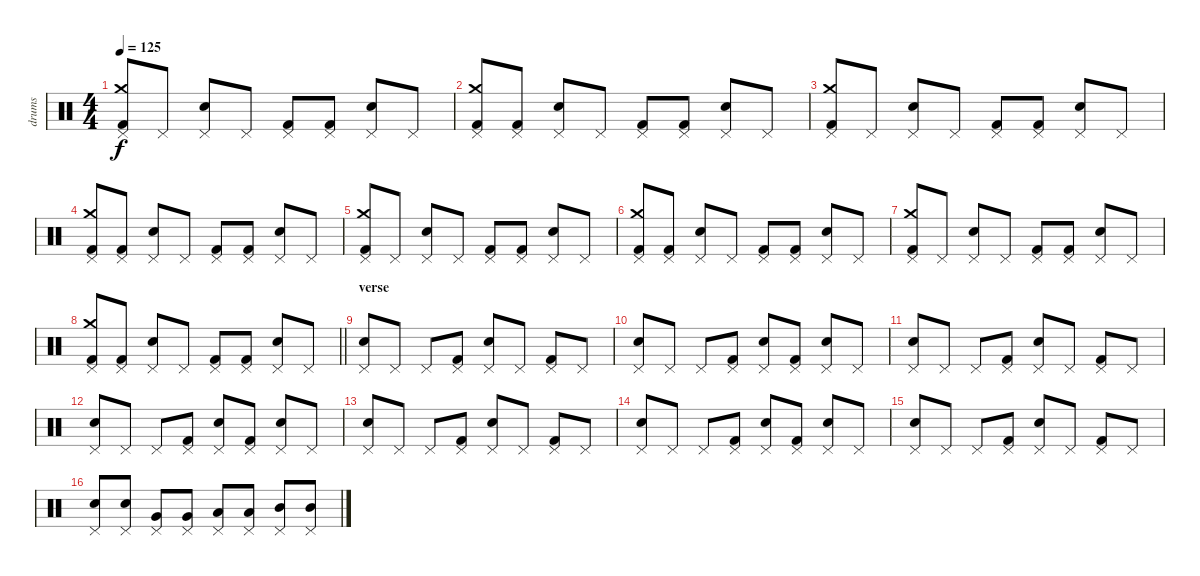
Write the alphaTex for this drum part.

\track ("drums" "drums") {instrument percussion}
\staff {score}
\articulation defaults
\ts (4 4)
\tempo 125
\clef neutral
\ks c
("Pedal Hi-Hat (hit)" "Crash medium (hit)" "Kick (hit) 2").8{dy f} "Pedal Hi-Hat (hit)".8 ("Pedal Hi-Hat (hit)" "Snare (hit) 2").8 "Pedal Hi-Hat (hit)".8 ("Pedal Hi-Hat (hit)" "Kick (hit) 2").8 ("Pedal Hi-Hat (hit)" "Kick (hit) 2").8 ("Pedal Hi-Hat (hit)" "Snare (hit) 2").8 "Pedal Hi-Hat (hit)".8 |
("Pedal Hi-Hat (hit)" "Crash medium (hit)" "Kick (hit) 2").8 ("Pedal Hi-Hat (hit)" "Kick (hit) 2").8 ("Pedal Hi-Hat (hit)" "Snare (hit) 2").8 "Pedal Hi-Hat (hit)".8 ("Pedal Hi-Hat (hit)" "Kick (hit) 2").8 ("Pedal Hi-Hat (hit)" "Kick (hit) 2").8 ("Pedal Hi-Hat (hit)" "Snare (hit) 2").8 "Pedal Hi-Hat (hit)".8 |
("Pedal Hi-Hat (hit)" "Crash medium (hit)" "Kick (hit) 2").8 "Pedal Hi-Hat (hit)".8 ("Pedal Hi-Hat (hit)" "Snare (hit) 2").8 "Pedal Hi-Hat (hit)".8 ("Pedal Hi-Hat (hit)" "Kick (hit) 2").8 ("Pedal Hi-Hat (hit)" "Kick (hit) 2").8 ("Pedal Hi-Hat (hit)" "Snare (hit) 2").8 "Pedal Hi-Hat (hit)".8 |
("Pedal Hi-Hat (hit)" "Crash medium (hit)" "Kick (hit) 2").8 ("Pedal Hi-Hat (hit)" "Kick (hit) 2").8 ("Pedal Hi-Hat (hit)" "Snare (hit) 2").8 "Pedal Hi-Hat (hit)".8 ("Pedal Hi-Hat (hit)" "Kick (hit) 2").8 ("Pedal Hi-Hat (hit)" "Kick (hit) 2").8 ("Pedal Hi-Hat (hit)" "Snare (hit) 2").8 "Pedal Hi-Hat (hit)".8 |
("Pedal Hi-Hat (hit)" "Crash medium (hit)" "Kick (hit) 2").8 "Pedal Hi-Hat (hit)".8 ("Pedal Hi-Hat (hit)" "Snare (hit) 2").8 "Pedal Hi-Hat (hit)".8 ("Pedal Hi-Hat (hit)" "Kick (hit) 2").8 ("Pedal Hi-Hat (hit)" "Kick (hit) 2").8 ("Pedal Hi-Hat (hit)" "Snare (hit) 2").8 "Pedal Hi-Hat (hit)".8 |
("Pedal Hi-Hat (hit)" "Crash medium (hit)" "Kick (hit) 2").8 ("Pedal Hi-Hat (hit)" "Kick (hit) 2").8 ("Pedal Hi-Hat (hit)" "Snare (hit) 2").8 "Pedal Hi-Hat (hit)".8 ("Pedal Hi-Hat (hit)" "Kick (hit) 2").8 ("Pedal Hi-Hat (hit)" "Kick (hit) 2").8 ("Pedal Hi-Hat (hit)" "Snare (hit) 2").8 "Pedal Hi-Hat (hit)".8 |
("Pedal Hi-Hat (hit)" "Crash medium (hit)" "Kick (hit) 2").8 "Pedal Hi-Hat (hit)".8 ("Pedal Hi-Hat (hit)" "Snare (hit) 2").8 "Pedal Hi-Hat (hit)".8 ("Pedal Hi-Hat (hit)" "Kick (hit) 2").8 ("Pedal Hi-Hat (hit)" "Kick (hit) 2").8 ("Pedal Hi-Hat (hit)" "Snare (hit) 2").8 "Pedal Hi-Hat (hit)".8 |
\barLineRight lightlight
("Pedal Hi-Hat (hit)" "Crash medium (hit)" "Kick (hit) 2").8 ("Pedal Hi-Hat (hit)" "Kick (hit) 2").8 ("Pedal Hi-Hat (hit)" "Snare (hit) 2").8 "Pedal Hi-Hat (hit)".8 ("Pedal Hi-Hat (hit)" "Kick (hit) 2").8 ("Pedal Hi-Hat (hit)" "Kick (hit) 2").8 ("Pedal Hi-Hat (hit)" "Snare (hit) 2").8 "Pedal Hi-Hat (hit)".8 |
\section ("" "verse")
("Pedal Hi-Hat (hit)" "Snare (hit) 2").8 "Pedal Hi-Hat (hit)".8 "Pedal Hi-Hat (hit)".8 ("Pedal Hi-Hat (hit)" "Kick (hit) 2").8 ("Pedal Hi-Hat (hit)" "Snare (hit) 2").8 "Pedal Hi-Hat (hit)".8 ("Pedal Hi-Hat (hit)" "Kick (hit) 2").8 "Pedal Hi-Hat (hit)".8 |
("Pedal Hi-Hat (hit)" "Snare (hit) 2").8 "Pedal Hi-Hat (hit)".8 "Pedal Hi-Hat (hit)".8 ("Pedal Hi-Hat (hit)" "Kick (hit) 2").8 ("Pedal Hi-Hat (hit)" "Snare (hit) 2").8 ("Pedal Hi-Hat (hit)" "Kick (hit) 2").8 ("Pedal Hi-Hat (hit)" "Snare (hit) 2").8 "Pedal Hi-Hat (hit)".8 |
("Pedal Hi-Hat (hit)" "Snare (hit) 2").8 "Pedal Hi-Hat (hit)".8 "Pedal Hi-Hat (hit)".8 ("Pedal Hi-Hat (hit)" "Kick (hit) 2").8 ("Pedal Hi-Hat (hit)" "Snare (hit) 2").8 "Pedal Hi-Hat (hit)".8 ("Pedal Hi-Hat (hit)" "Kick (hit) 2").8 "Pedal Hi-Hat (hit)".8 |
("Pedal Hi-Hat (hit)" "Snare (hit) 2").8 "Pedal Hi-Hat (hit)".8 "Pedal Hi-Hat (hit)".8 ("Pedal Hi-Hat (hit)" "Kick (hit) 2").8 ("Pedal Hi-Hat (hit)" "Snare (hit) 2").8 ("Pedal Hi-Hat (hit)" "Kick (hit) 2").8 ("Pedal Hi-Hat (hit)" "Snare (hit) 2").8 "Pedal Hi-Hat (hit)".8 |
("Pedal Hi-Hat (hit)" "Snare (hit) 2").8 "Pedal Hi-Hat (hit)".8 "Pedal Hi-Hat (hit)".8 ("Pedal Hi-Hat (hit)" "Kick (hit) 2").8 ("Pedal Hi-Hat (hit)" "Snare (hit) 2").8 "Pedal Hi-Hat (hit)".8 ("Pedal Hi-Hat (hit)" "Kick (hit) 2").8 "Pedal Hi-Hat (hit)".8 |
("Pedal Hi-Hat (hit)" "Snare (hit) 2").8 "Pedal Hi-Hat (hit)".8 "Pedal Hi-Hat (hit)".8 ("Pedal Hi-Hat (hit)" "Kick (hit) 2").8 ("Pedal Hi-Hat (hit)" "Snare (hit) 2").8 ("Pedal Hi-Hat (hit)" "Kick (hit) 2").8 ("Pedal Hi-Hat (hit)" "Snare (hit) 2").8 "Pedal Hi-Hat (hit)".8 |
("Pedal Hi-Hat (hit)" "Snare (hit) 2").8 "Pedal Hi-Hat (hit)".8 "Pedal Hi-Hat (hit)".8 ("Pedal Hi-Hat (hit)" "Kick (hit) 2").8 ("Pedal Hi-Hat (hit)" "Snare (hit) 2").8 "Pedal Hi-Hat (hit)".8 ("Pedal Hi-Hat (hit)" "Kick (hit) 2").8 "Pedal Hi-Hat (hit)".8 |
("Pedal Hi-Hat (hit)" "Snare (hit) 2").8 ("Pedal Hi-Hat (hit)" "Snare (hit) 2").8 ("Pedal Hi-Hat (hit)" "Very Low Tom (hit)").8 ("Pedal Hi-Hat (hit)" "Very Low Tom (hit)").8 ("Pedal Hi-Hat (hit)" "Low Tom (hit)").8 ("Pedal Hi-Hat (hit)" "Low Tom (hit)").8 ("Pedal Hi-Hat (hit)" "Mid Tom (hit)").8 ("Pedal Hi-Hat (hit)" "Mid Tom (hit)").8
